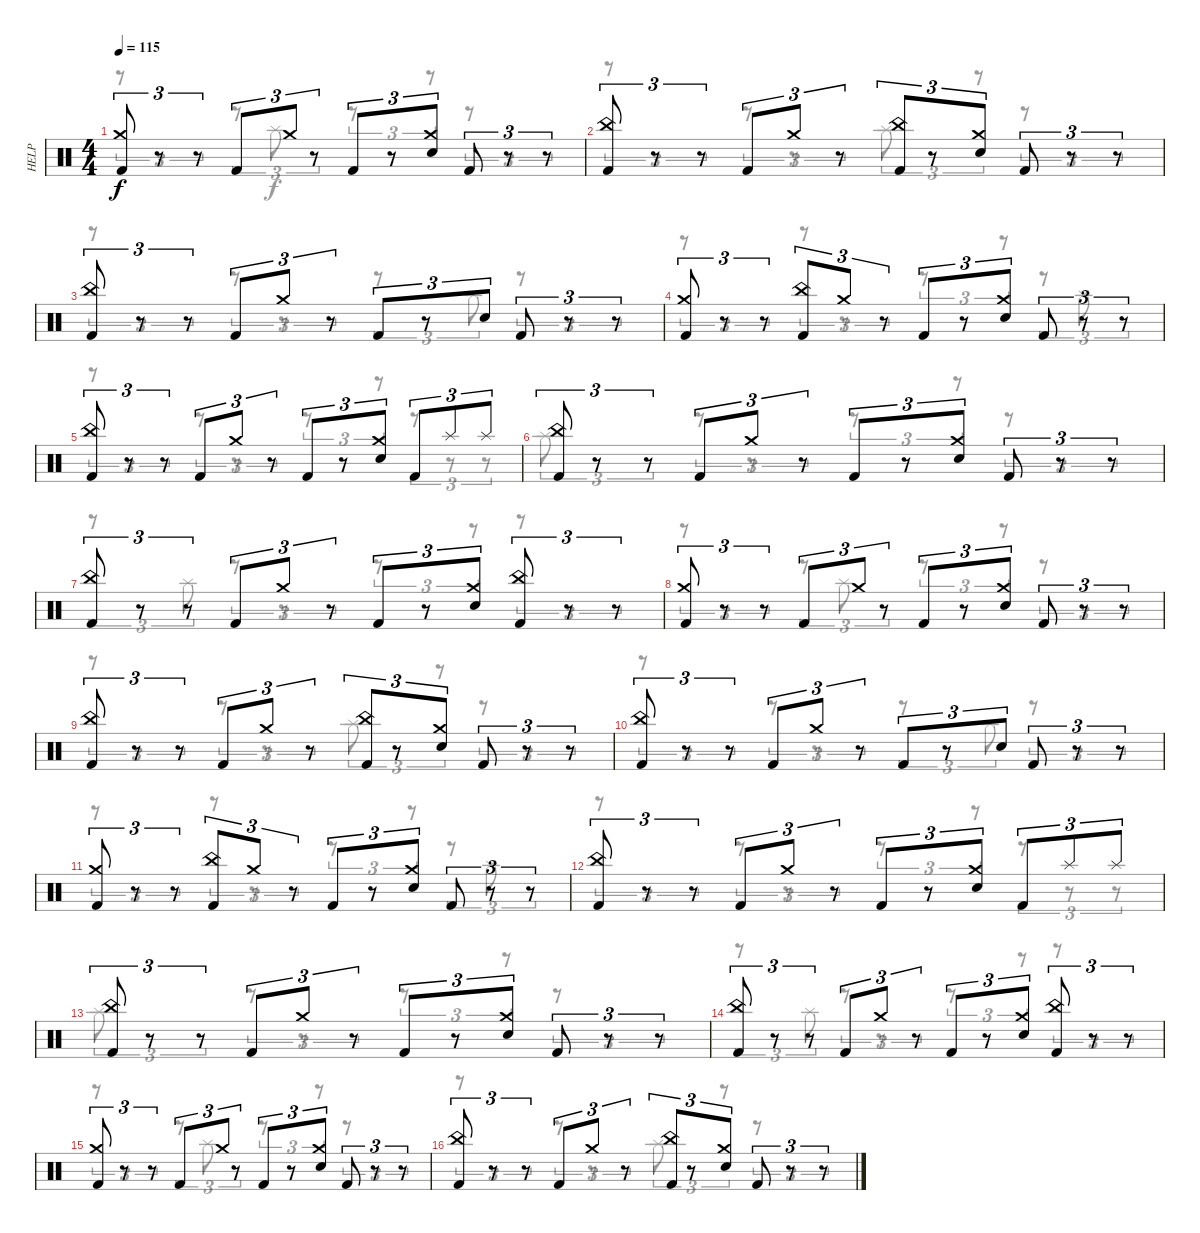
\track ("HELP" "HELP") {instrument percussion}
\staff {score}
\articulation defaults
\voice
\ts (4 4)
\tempo 115
\clef neutral
\ks c
("Crash medium (hit)" "Kick (hit) 2").8{tu (3 2) dy f} r.8{tu (3 2)} r.8{tu (3 2)} "Kick (hit) 2".8{tu (3 2)} "Crash medium (hit)".8{tu (3 2)} r.8{tu (3 2)} "Kick (hit) 2".8{tu (3 2)} r.8{tu (3 2)} ("Crash medium (hit)" "Electric Snare (hit)").8{tu (3 2)} "Kick (hit) 2".8{tu (3 2)} r.8{tu (3 2)} r.8{tu (3 2)} |
("China (hit)" "Kick (hit) 2").8{tu (3 2)} r.8{tu (3 2)} r.8{tu (3 2)} "Kick (hit) 2".8{tu (3 2)} "Crash medium (hit)".8{tu (3 2)} r.8{tu (3 2)} ("China (hit)" "Kick (hit) 2").8{tu (3 2)} r.8{tu (3 2)} ("Crash medium (hit)" "Electric Snare (hit)").8{tu (3 2)} "Kick (hit) 2".8{tu (3 2)} r.8{tu (3 2)} r.8{tu (3 2)} |
("China (hit)" "Kick (hit) 2").8{tu (3 2)} r.8{tu (3 2)} r.8{tu (3 2)} "Kick (hit) 2".8{tu (3 2)} "Crash medium (hit)".8{tu (3 2)} r.8{tu (3 2)} "Kick (hit) 2".8{tu (3 2)} r.8{tu (3 2)} "Electric Snare (hit)".8{tu (3 2)} "Kick (hit) 2".8{tu (3 2)} r.8{tu (3 2)} r.8{tu (3 2)} |
("Crash medium (hit)" "Kick (hit) 2").8{tu (3 2)} r.8{tu (3 2)} r.8{tu (3 2)} ("China (hit)" "Kick (hit) 2").8{tu (3 2)} "Crash medium (hit)".8{tu (3 2)} r.8{tu (3 2)} "Kick (hit) 2".8{tu (3 2)} r.8{tu (3 2)} ("Crash medium (hit)" "Electric Snare (hit)").8{tu (3 2)} "Kick (hit) 2".8{tu (3 2)} r.8{tu (3 2)} r.8{tu (3 2)} |
("China (hit)" "Kick (hit) 2").8{tu (3 2)} r.8{tu (3 2)} r.8{tu (3 2)} "Kick (hit) 2".8{tu (3 2)} "Crash medium (hit)".8{tu (3 2)} r.8{tu (3 2)} "Kick (hit) 2".8{tu (3 2)} r.8{tu (3 2)} ("Crash medium (hit)" "Electric Snare (hit)").8{tu (3 2)} "Kick (hit) 2".8{tu (3 2)} "Splash (hit)".8{tu (3 2)} "Splash (hit)".8{tu (3 2)} |
("China (hit)" "Kick (hit) 2").8{tu (3 2)} r.8{tu (3 2)} r.8{tu (3 2)} "Kick (hit) 2".8{tu (3 2)} "Crash medium (hit)".8{tu (3 2)} r.8{tu (3 2)} "Kick (hit) 2".8{tu (3 2)} r.8{tu (3 2)} ("Crash medium (hit)" "Electric Snare (hit)").8{tu (3 2)} "Kick (hit) 2".8{tu (3 2)} r.8{tu (3 2)} r.8{tu (3 2)} |
("China (hit)" "Kick (hit) 2").8{tu (3 2)} r.8{tu (3 2)} r.8{tu (3 2)} "Kick (hit) 2".8{tu (3 2)} "Crash medium (hit)".8{tu (3 2)} r.8{tu (3 2)} "Kick (hit) 2".8{tu (3 2)} r.8{tu (3 2)} ("Crash medium (hit)" "Electric Snare (hit)").8{tu (3 2)} ("China (hit)" "Kick (hit) 2").8{tu (3 2)} r.8{tu (3 2)} r.8{tu (3 2)} |
("Crash medium (hit)" "Kick (hit) 2").8{tu (3 2)} r.8{tu (3 2)} r.8{tu (3 2)} "Kick (hit) 2".8{tu (3 2)} "Crash medium (hit)".8{tu (3 2)} r.8{tu (3 2)} "Kick (hit) 2".8{tu (3 2)} r.8{tu (3 2)} ("Crash medium (hit)" "Electric Snare (hit)").8{tu (3 2)} "Kick (hit) 2".8{tu (3 2)} r.8{tu (3 2)} r.8{tu (3 2)} |
("China (hit)" "Kick (hit) 2").8{tu (3 2)} r.8{tu (3 2)} r.8{tu (3 2)} "Kick (hit) 2".8{tu (3 2)} "Crash medium (hit)".8{tu (3 2)} r.8{tu (3 2)} ("China (hit)" "Kick (hit) 2").8{tu (3 2)} r.8{tu (3 2)} ("Crash medium (hit)" "Electric Snare (hit)").8{tu (3 2)} "Kick (hit) 2".8{tu (3 2)} r.8{tu (3 2)} r.8{tu (3 2)} |
("China (hit)" "Kick (hit) 2").8{tu (3 2)} r.8{tu (3 2)} r.8{tu (3 2)} "Kick (hit) 2".8{tu (3 2)} "Crash medium (hit)".8{tu (3 2)} r.8{tu (3 2)} "Kick (hit) 2".8{tu (3 2)} r.8{tu (3 2)} "Electric Snare (hit)".8{tu (3 2)} "Kick (hit) 2".8{tu (3 2)} r.8{tu (3 2)} r.8{tu (3 2)} |
("Crash medium (hit)" "Kick (hit) 2").8{tu (3 2)} r.8{tu (3 2)} r.8{tu (3 2)} ("China (hit)" "Kick (hit) 2").8{tu (3 2)} "Crash medium (hit)".8{tu (3 2)} r.8{tu (3 2)} "Kick (hit) 2".8{tu (3 2)} r.8{tu (3 2)} ("Crash medium (hit)" "Electric Snare (hit)").8{tu (3 2)} "Kick (hit) 2".8{tu (3 2)} r.8{tu (3 2)} r.8{tu (3 2)} |
("China (hit)" "Kick (hit) 2").8{tu (3 2)} r.8{tu (3 2)} r.8{tu (3 2)} "Kick (hit) 2".8{tu (3 2)} "Crash medium (hit)".8{tu (3 2)} r.8{tu (3 2)} "Kick (hit) 2".8{tu (3 2)} r.8{tu (3 2)} ("Crash medium (hit)" "Electric Snare (hit)").8{tu (3 2)} "Kick (hit) 2".8{tu (3 2)} "Splash (hit)".8{tu (3 2)} "Splash (hit)".8{tu (3 2)} |
("China (hit)" "Kick (hit) 2").8{tu (3 2)} r.8{tu (3 2)} r.8{tu (3 2)} "Kick (hit) 2".8{tu (3 2)} "Crash medium (hit)".8{tu (3 2)} r.8{tu (3 2)} "Kick (hit) 2".8{tu (3 2)} r.8{tu (3 2)} ("Crash medium (hit)" "Electric Snare (hit)").8{tu (3 2)} "Kick (hit) 2".8{tu (3 2)} r.8{tu (3 2)} r.8{tu (3 2)} |
("China (hit)" "Kick (hit) 2").8{tu (3 2)} r.8{tu (3 2)} r.8{tu (3 2)} "Kick (hit) 2".8{tu (3 2)} "Crash medium (hit)".8{tu (3 2)} r.8{tu (3 2)} "Kick (hit) 2".8{tu (3 2)} r.8{tu (3 2)} ("Crash medium (hit)" "Electric Snare (hit)").8{tu (3 2)} ("China (hit)" "Kick (hit) 2").8{tu (3 2)} r.8{tu (3 2)} r.8{tu (3 2)} |
("Crash medium (hit)" "Kick (hit) 2").8{tu (3 2)} r.8{tu (3 2)} r.8{tu (3 2)} "Kick (hit) 2".8{tu (3 2)} "Crash medium (hit)".8{tu (3 2)} r.8{tu (3 2)} "Kick (hit) 2".8{tu (3 2)} r.8{tu (3 2)} ("Crash medium (hit)" "Electric Snare (hit)").8{tu (3 2)} "Kick (hit) 2".8{tu (3 2)} r.8{tu (3 2)} r.8{tu (3 2)} |
("China (hit)" "Kick (hit) 2").8{tu (3 2)} r.8{tu (3 2)} r.8{tu (3 2)} "Kick (hit) 2".8{tu (3 2)} "Crash medium (hit)".8{tu (3 2)} r.8{tu (3 2)} ("China (hit)" "Kick (hit) 2").8{tu (3 2)} r.8{tu (3 2)} ("Crash medium (hit)" "Electric Snare (hit)").8{tu (3 2)} "Kick (hit) 2".8{tu (3 2)} r.8{tu (3 2)} r.8{tu (3 2)}
\voice
\clef neutral
\ottava regular
\simile none
\ks c
r.8{tu (3 2) dy f} r.8{tu (3 2)} r.8{tu (3 2)} r.8{tu (3 2)} "Splash (hit)".8{tu (3 2)} r.8{tu (3 2)} r.8{tu (3 2)} r.8{tu (3 2)} r.8{tu (3 2)} r.8{tu (3 2)} r.8{tu (3 2)} r.8{tu (3 2)} |
r.8{tu (3 2)} r.8{tu (3 2)} r.8{tu (3 2)} r.8{tu (3 2)} r.8{tu (3 2)} r.8{tu (3 2)} "Splash (hit)".8{tu (3 2)} r.8{tu (3 2)} r.8{tu (3 2)} r.8{tu (3 2)} r.8{tu (3 2)} r.8{tu (3 2)} |
r.8{tu (3 2)} r.8{tu (3 2)} r.8{tu (3 2)} r.8{tu (3 2)} r.8{tu (3 2)} r.8{tu (3 2)} r.8{tu (3 2)} r.8{tu (3 2)} "Splash (hit)".8{tu (3 2)} r.8{tu (3 2)} r.8{tu (3 2)} r.8{tu (3 2)} |
r.8{tu (3 2)} r.8{tu (3 2)} r.8{tu (3 2)} r.8{tu (3 2)} r.8{tu (3 2)} r.8{tu (3 2)} r.8{tu (3 2)} r.8{tu (3 2)} r.8{tu (3 2)} r.8{tu (3 2)} "Splash (hit)".8{tu (3 2)} r.8{tu (3 2)} |
r.8{tu (3 2)} r.8{tu (3 2)} r.8{tu (3 2)} r.8{tu (3 2)} r.8{tu (3 2)} r.8{tu (3 2)} r.8{tu (3 2)} r.8{tu (3 2)} r.8{tu (3 2)} r.8{tu (3 2)} r.8{tu (3 2)} r.8{tu (3 2)} |
"Splash (hit)".8{tu (3 2)} r.8{tu (3 2)} r.8{tu (3 2)} r.8{tu (3 2)} r.8{tu (3 2)} r.8{tu (3 2)} r.8{tu (3 2)} r.8{tu (3 2)} r.8{tu (3 2)} r.8{tu (3 2)} r.8{tu (3 2)} r.8{tu (3 2)} |
r.8{tu (3 2)} r.8{tu (3 2)} "Splash (hit)".8{tu (3 2)} r.8{tu (3 2)} r.8{tu (3 2)} r.8{tu (3 2)} r.8{tu (3 2)} r.8{tu (3 2)} r.8{tu (3 2)} r.8{tu (3 2)} r.8{tu (3 2)} r.8{tu (3 2)} |
r.8{tu (3 2)} r.8{tu (3 2)} r.8{tu (3 2)} r.8{tu (3 2)} "Splash (hit)".8{tu (3 2)} r.8{tu (3 2)} r.8{tu (3 2)} r.8{tu (3 2)} r.8{tu (3 2)} r.8{tu (3 2)} r.8{tu (3 2)} r.8{tu (3 2)} |
r.8{tu (3 2)} r.8{tu (3 2)} r.8{tu (3 2)} r.8{tu (3 2)} r.8{tu (3 2)} r.8{tu (3 2)} "Splash (hit)".8{tu (3 2)} r.8{tu (3 2)} r.8{tu (3 2)} r.8{tu (3 2)} r.8{tu (3 2)} r.8{tu (3 2)} |
r.8{tu (3 2)} r.8{tu (3 2)} r.8{tu (3 2)} r.8{tu (3 2)} r.8{tu (3 2)} r.8{tu (3 2)} r.8{tu (3 2)} r.8{tu (3 2)} "Splash (hit)".8{tu (3 2)} r.8{tu (3 2)} r.8{tu (3 2)} r.8{tu (3 2)} |
r.8{tu (3 2)} r.8{tu (3 2)} r.8{tu (3 2)} r.8{tu (3 2)} r.8{tu (3 2)} r.8{tu (3 2)} r.8{tu (3 2)} r.8{tu (3 2)} r.8{tu (3 2)} r.8{tu (3 2)} "Splash (hit)".8{tu (3 2)} r.8{tu (3 2)} |
r.8{tu (3 2)} r.8{tu (3 2)} r.8{tu (3 2)} r.8{tu (3 2)} r.8{tu (3 2)} r.8{tu (3 2)} r.8{tu (3 2)} r.8{tu (3 2)} r.8{tu (3 2)} r.8{tu (3 2)} r.8{tu (3 2)} r.8{tu (3 2)} |
"Splash (hit)".8{tu (3 2)} r.8{tu (3 2)} r.8{tu (3 2)} r.8{tu (3 2)} r.8{tu (3 2)} r.8{tu (3 2)} r.8{tu (3 2)} r.8{tu (3 2)} r.8{tu (3 2)} r.8{tu (3 2)} r.8{tu (3 2)} r.8{tu (3 2)} |
r.8{tu (3 2)} r.8{tu (3 2)} "Splash (hit)".8{tu (3 2)} r.8{tu (3 2)} r.8{tu (3 2)} r.8{tu (3 2)} r.8{tu (3 2)} r.8{tu (3 2)} r.8{tu (3 2)} r.8{tu (3 2)} r.8{tu (3 2)} r.8{tu (3 2)} |
r.8{tu (3 2)} r.8{tu (3 2)} r.8{tu (3 2)} r.8{tu (3 2)} "Splash (hit)".8{tu (3 2)} r.8{tu (3 2)} r.8{tu (3 2)} r.8{tu (3 2)} r.8{tu (3 2)} r.8{tu (3 2)} r.8{tu (3 2)} r.8{tu (3 2)} |
r.8{tu (3 2)} r.8{tu (3 2)} r.8{tu (3 2)} r.8{tu (3 2)} r.8{tu (3 2)} r.8{tu (3 2)} "Splash (hit)".8{tu (3 2)} r.8{tu (3 2)} r.8{tu (3 2)} r.8{tu (3 2)} r.8{tu (3 2)} r.8{tu (3 2)}
